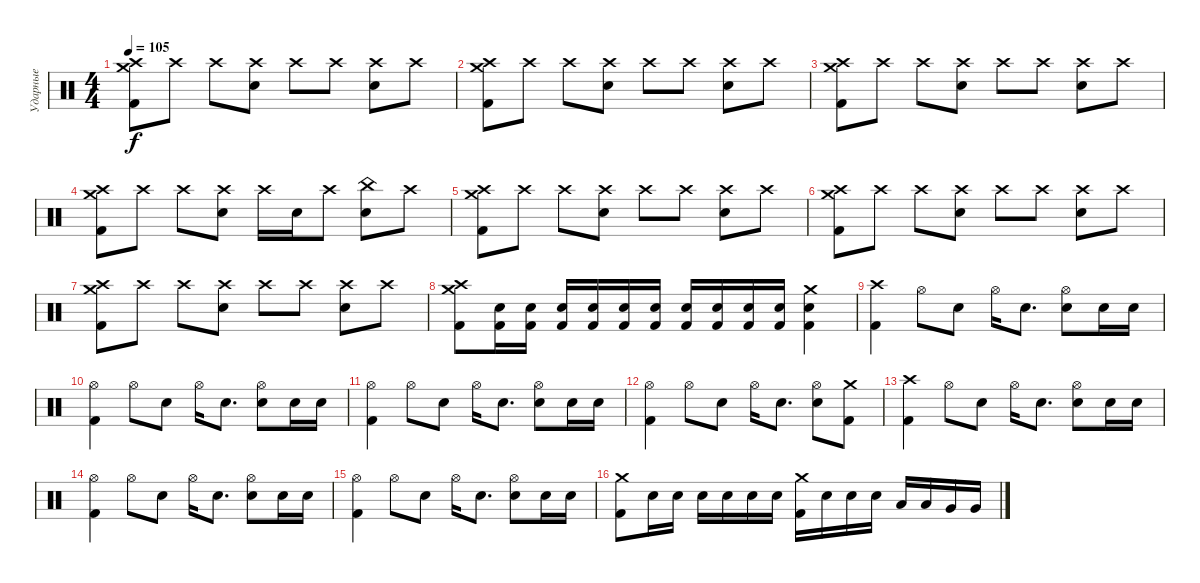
\track ("Ударные" "Ударные") {instrument percussion}
\staff {score}
\articulation defaults
\ts (4 4)
\tempo 105
\clef neutral
\ks c
("Crash high (hit)" "Crash medium (hit)" "Kick (hit) 2").8{dy f} "Crash high (hit)".8 "Crash high (hit)".8 ("Crash high (hit)" "Electric Snare (hit)").8 "Crash high (hit)".8 "Crash high (hit)".8 ("Crash high (hit)" "Electric Snare (hit)").8 "Crash high (hit)".8 |
("Crash high (hit)" "Crash medium (hit)" "Kick (hit) 2").8 "Crash high (hit)".8 "Crash high (hit)".8 ("Crash high (hit)" "Electric Snare (hit)").8 "Crash high (hit)".8 "Crash high (hit)".8 ("Crash high (hit)" "Electric Snare (hit)").8 "Crash high (hit)".8 |
("Crash high (hit)" "Crash medium (hit)" "Kick (hit) 2").8 "Crash high (hit)".8 "Crash high (hit)".8 ("Crash high (hit)" "Electric Snare (hit)").8 "Crash high (hit)".8 "Crash high (hit)".8 ("Crash high (hit)" "Electric Snare (hit)").8 "Crash high (hit)".8 |
("Crash high (hit)" "Crash medium (hit)" "Kick (hit) 2").8 "Crash high (hit)".8 "Crash high (hit)".8 ("Crash high (hit)" "Electric Snare (hit)").8 "Crash high (hit)".16 "Electric Snare (hit)".16 "Crash high (hit)".8 ("China (hit)" "Electric Snare (hit)").8 "Crash high (hit)".8 |
("Crash high (hit)" "Crash medium (hit)" "Kick (hit) 2").8 "Crash high (hit)".8 "Crash high (hit)".8 ("Crash high (hit)" "Electric Snare (hit)").8 "Crash high (hit)".8 "Crash high (hit)".8 ("Crash high (hit)" "Electric Snare (hit)").8 "Crash high (hit)".8 |
("Crash high (hit)" "Crash medium (hit)" "Kick (hit) 2").8 "Crash high (hit)".8 "Crash high (hit)".8 ("Crash high (hit)" "Electric Snare (hit)").8 "Crash high (hit)".8 "Crash high (hit)".8 ("Crash high (hit)" "Electric Snare (hit)").8 "Crash high (hit)".8 |
("Crash high (hit)" "Crash medium (hit)" "Kick (hit) 2").8 "Crash high (hit)".8 "Crash high (hit)".8 ("Crash high (hit)" "Electric Snare (hit)").8 "Crash high (hit)".8 "Crash high (hit)".8 ("Crash high (hit)" "Electric Snare (hit)").8 "Crash high (hit)".8 |
("Crash high (hit)" "Crash medium (hit)" "Kick (hit) 2").8 ("Electric Snare (hit)" "Kick (hit) 2").16 ("Electric Snare (hit)" "Kick (hit) 2").16 ("Electric Snare (hit)" "Kick (hit) 2").16 ("Electric Snare (hit)" "Kick (hit) 2").16 ("Electric Snare (hit)" "Kick (hit) 2").16 ("Electric Snare (hit)" "Kick (hit) 2").16 ("Electric Snare (hit)" "Kick (hit) 2").16 ("Electric Snare (hit)" "Kick (hit) 2").16 ("Electric Snare (hit)" "Kick (hit) 2").16 ("Electric Snare (hit)" "Kick (hit) 2").16 ("Crash medium (hit)" "Electric Snare (hit)" "Kick (hit) 2").4 |
("Crash high (hit)" "Kick (hit) 2").4 "Hi-Hat (open)".8 "Electric Snare (hit)".8 "Hi-Hat (open)".16 "Electric Snare (hit)".8{d} ("Hi-Hat (open)" "Electric Snare (hit)").8 "Electric Snare (hit)".16 "Electric Snare (hit)".16 |
("Hi-Hat (open)" "Kick (hit) 2").4 "Hi-Hat (open)".8 "Electric Snare (hit)".8 "Hi-Hat (open)".16 "Electric Snare (hit)".8{d} ("Hi-Hat (open)" "Electric Snare (hit)").8 "Electric Snare (hit)".16 "Electric Snare (hit)".16 |
("Hi-Hat (open)" "Kick (hit) 2").4 "Hi-Hat (open)".8 "Electric Snare (hit)".8 "Hi-Hat (open)".16 "Electric Snare (hit)".8{d} ("Hi-Hat (open)" "Electric Snare (hit)").8 "Electric Snare (hit)".16 "Electric Snare (hit)".16 |
("Hi-Hat (open)" "Kick (hit) 2").4 "Hi-Hat (open)".8 "Electric Snare (hit)".8 "Hi-Hat (open)".16 "Electric Snare (hit)".8{d} ("Hi-Hat (open)" "Electric Snare (hit)").8 ("Crash medium (hit)" "Kick (hit) 2").8 |
("Crash high (hit)" "Kick (hit) 2").4 "Hi-Hat (open)".8 "Electric Snare (hit)".8 "Hi-Hat (open)".16 "Electric Snare (hit)".8{d} ("Hi-Hat (open)" "Electric Snare (hit)").8 "Electric Snare (hit)".16 "Electric Snare (hit)".16 |
("Hi-Hat (open)" "Kick (hit) 2").4 "Hi-Hat (open)".8 "Electric Snare (hit)".8 "Hi-Hat (open)".16 "Electric Snare (hit)".8{d} ("Hi-Hat (open)" "Electric Snare (hit)").8 "Electric Snare (hit)".16 "Electric Snare (hit)".16 |
("Hi-Hat (open)" "Kick (hit) 2").4 "Hi-Hat (open)".8 "Electric Snare (hit)".8 "Hi-Hat (open)".16 "Electric Snare (hit)".8{d} ("Hi-Hat (open)" "Electric Snare (hit)").8 "Electric Snare (hit)".16 "Electric Snare (hit)".16 |
("Crash medium (hit)" "Kick (hit) 2").8 "Electric Snare (hit)".16 "Electric Snare (hit)".16 "Electric Snare (hit)".16 "Electric Snare (hit)".16 "Electric Snare (hit)".16 "Electric Snare (hit)".16 ("Crash medium (hit)" "Kick (hit) 2").16 "Electric Snare (hit)".16 "Electric Snare (hit)".16 "Electric Snare (hit)".16 "Low Tom (hit)".16 "Low Tom (hit)".16 "Very Low Tom (hit)".16 "Very Low Tom (hit)".16
